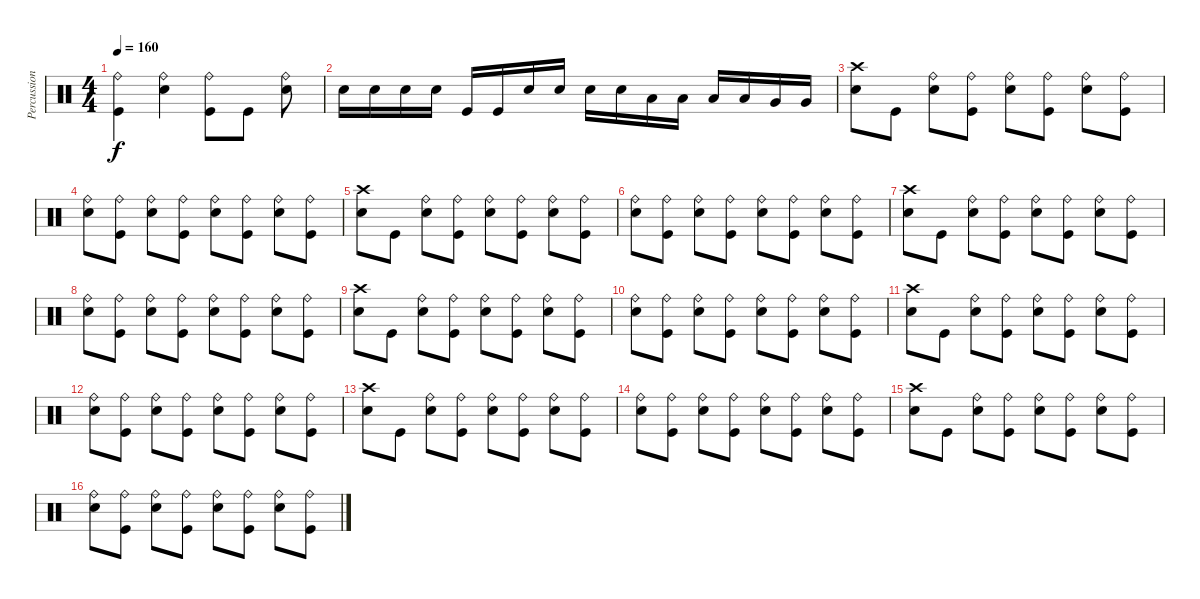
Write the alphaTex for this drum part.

\track ("Percussion" "Percussion") {instrument percussion}
\staff {score}
\articulation defaults
\ts (4 4)
\tempo 160
\clef neutral
\ks c
("Ride (bell)" "Kick (hit)").4{dy f} ("Ride (bell)" "Electric Snare (hit)").4 ("Ride (bell)" "Kick (hit)").8 "Kick (hit)".8 ("Ride (bell)" "Electric Snare (hit)").8 |
"Electric Snare (hit)".16 "Electric Snare (hit)".16 "Electric Snare (hit)".16 "Electric Snare (hit)".16 "Kick (hit)".16 "Kick (hit)".16 "Electric Snare (hit)".16 "Electric Snare (hit)".16 "Electric Snare (hit)".16 "Electric Snare (hit)".16 "Low Tom (hit)".16 "Low Tom (hit)".16 "Low Tom (hit)".16 "Low Tom (hit)".16 "Very Low Tom (hit)".16 "Very Low Tom (hit)".16 |
("Crash high (hit)" "Electric Snare (hit)").8 "Kick (hit)".8 ("Ride (bell)" "Electric Snare (hit)").8 ("Ride (bell)" "Kick (hit)").8 ("Ride (bell)" "Electric Snare (hit)").8 ("Ride (bell)" "Kick (hit)").8 ("Ride (bell)" "Electric Snare (hit)").8 ("Ride (bell)" "Kick (hit)").8 |
("Electric Snare (hit)" "Ride (bell)").8 ("Kick (hit)" "Ride (bell)").8 ("Electric Snare (hit)" "Ride (bell)").8 ("Kick (hit)" "Ride (bell)").8 ("Electric Snare (hit)" "Ride (bell)").8 ("Kick (hit)" "Ride (bell)").8 ("Electric Snare (hit)" "Ride (bell)").8 ("Kick (hit)" "Ride (bell)").8 |
("Crash high (hit)" "Electric Snare (hit)").8 "Kick (hit)".8 ("Ride (bell)" "Electric Snare (hit)").8 ("Ride (bell)" "Kick (hit)").8 ("Ride (bell)" "Electric Snare (hit)").8 ("Ride (bell)" "Kick (hit)").8 ("Ride (bell)" "Electric Snare (hit)").8 ("Ride (bell)" "Kick (hit)").8 |
("Electric Snare (hit)" "Ride (bell)").8 ("Kick (hit)" "Ride (bell)").8 ("Electric Snare (hit)" "Ride (bell)").8 ("Kick (hit)" "Ride (bell)").8 ("Electric Snare (hit)" "Ride (bell)").8 ("Kick (hit)" "Ride (bell)").8 ("Electric Snare (hit)" "Ride (bell)").8 ("Kick (hit)" "Ride (bell)").8 |
("Crash high (hit)" "Electric Snare (hit)").8 "Kick (hit)".8 ("Ride (bell)" "Electric Snare (hit)").8 ("Ride (bell)" "Kick (hit)").8 ("Ride (bell)" "Electric Snare (hit)").8 ("Ride (bell)" "Kick (hit)").8 ("Ride (bell)" "Electric Snare (hit)").8 ("Ride (bell)" "Kick (hit)").8 |
("Electric Snare (hit)" "Ride (bell)").8 ("Kick (hit)" "Ride (bell)").8 ("Electric Snare (hit)" "Ride (bell)").8 ("Kick (hit)" "Ride (bell)").8 ("Electric Snare (hit)" "Ride (bell)").8 ("Kick (hit)" "Ride (bell)").8 ("Electric Snare (hit)" "Ride (bell)").8 ("Kick (hit)" "Ride (bell)").8 |
("Crash high (hit)" "Electric Snare (hit)").8 "Kick (hit)".8 ("Ride (bell)" "Electric Snare (hit)").8 ("Ride (bell)" "Kick (hit)").8 ("Ride (bell)" "Electric Snare (hit)").8 ("Ride (bell)" "Kick (hit)").8 ("Ride (bell)" "Electric Snare (hit)").8 ("Ride (bell)" "Kick (hit)").8 |
("Electric Snare (hit)" "Ride (bell)").8 ("Kick (hit)" "Ride (bell)").8 ("Electric Snare (hit)" "Ride (bell)").8 ("Kick (hit)" "Ride (bell)").8 ("Electric Snare (hit)" "Ride (bell)").8 ("Kick (hit)" "Ride (bell)").8 ("Electric Snare (hit)" "Ride (bell)").8 ("Kick (hit)" "Ride (bell)").8 |
("Crash high (hit)" "Electric Snare (hit)").8 "Kick (hit)".8 ("Ride (bell)" "Electric Snare (hit)").8 ("Ride (bell)" "Kick (hit)").8 ("Ride (bell)" "Electric Snare (hit)").8 ("Ride (bell)" "Kick (hit)").8 ("Ride (bell)" "Electric Snare (hit)").8 ("Ride (bell)" "Kick (hit)").8 |
("Electric Snare (hit)" "Ride (bell)").8 ("Kick (hit)" "Ride (bell)").8 ("Electric Snare (hit)" "Ride (bell)").8 ("Kick (hit)" "Ride (bell)").8 ("Electric Snare (hit)" "Ride (bell)").8 ("Kick (hit)" "Ride (bell)").8 ("Electric Snare (hit)" "Ride (bell)").8 ("Kick (hit)" "Ride (bell)").8 |
("Crash high (hit)" "Electric Snare (hit)").8 "Kick (hit)".8 ("Ride (bell)" "Electric Snare (hit)").8 ("Ride (bell)" "Kick (hit)").8 ("Ride (bell)" "Electric Snare (hit)").8 ("Ride (bell)" "Kick (hit)").8 ("Ride (bell)" "Electric Snare (hit)").8 ("Ride (bell)" "Kick (hit)").8 |
("Electric Snare (hit)" "Ride (bell)").8 ("Kick (hit)" "Ride (bell)").8 ("Electric Snare (hit)" "Ride (bell)").8 ("Kick (hit)" "Ride (bell)").8 ("Electric Snare (hit)" "Ride (bell)").8 ("Kick (hit)" "Ride (bell)").8 ("Electric Snare (hit)" "Ride (bell)").8 ("Kick (hit)" "Ride (bell)").8 |
("Crash high (hit)" "Electric Snare (hit)").8 "Kick (hit)".8 ("Ride (bell)" "Electric Snare (hit)").8 ("Ride (bell)" "Kick (hit)").8 ("Ride (bell)" "Electric Snare (hit)").8 ("Ride (bell)" "Kick (hit)").8 ("Ride (bell)" "Electric Snare (hit)").8 ("Ride (bell)" "Kick (hit)").8 |
("Electric Snare (hit)" "Ride (bell)").8 ("Kick (hit)" "Ride (bell)").8 ("Electric Snare (hit)" "Ride (bell)").8 ("Kick (hit)" "Ride (bell)").8 ("Electric Snare (hit)" "Ride (bell)").8 ("Kick (hit)" "Ride (bell)").8 ("Electric Snare (hit)" "Ride (bell)").8 ("Kick (hit)" "Ride (bell)").8
